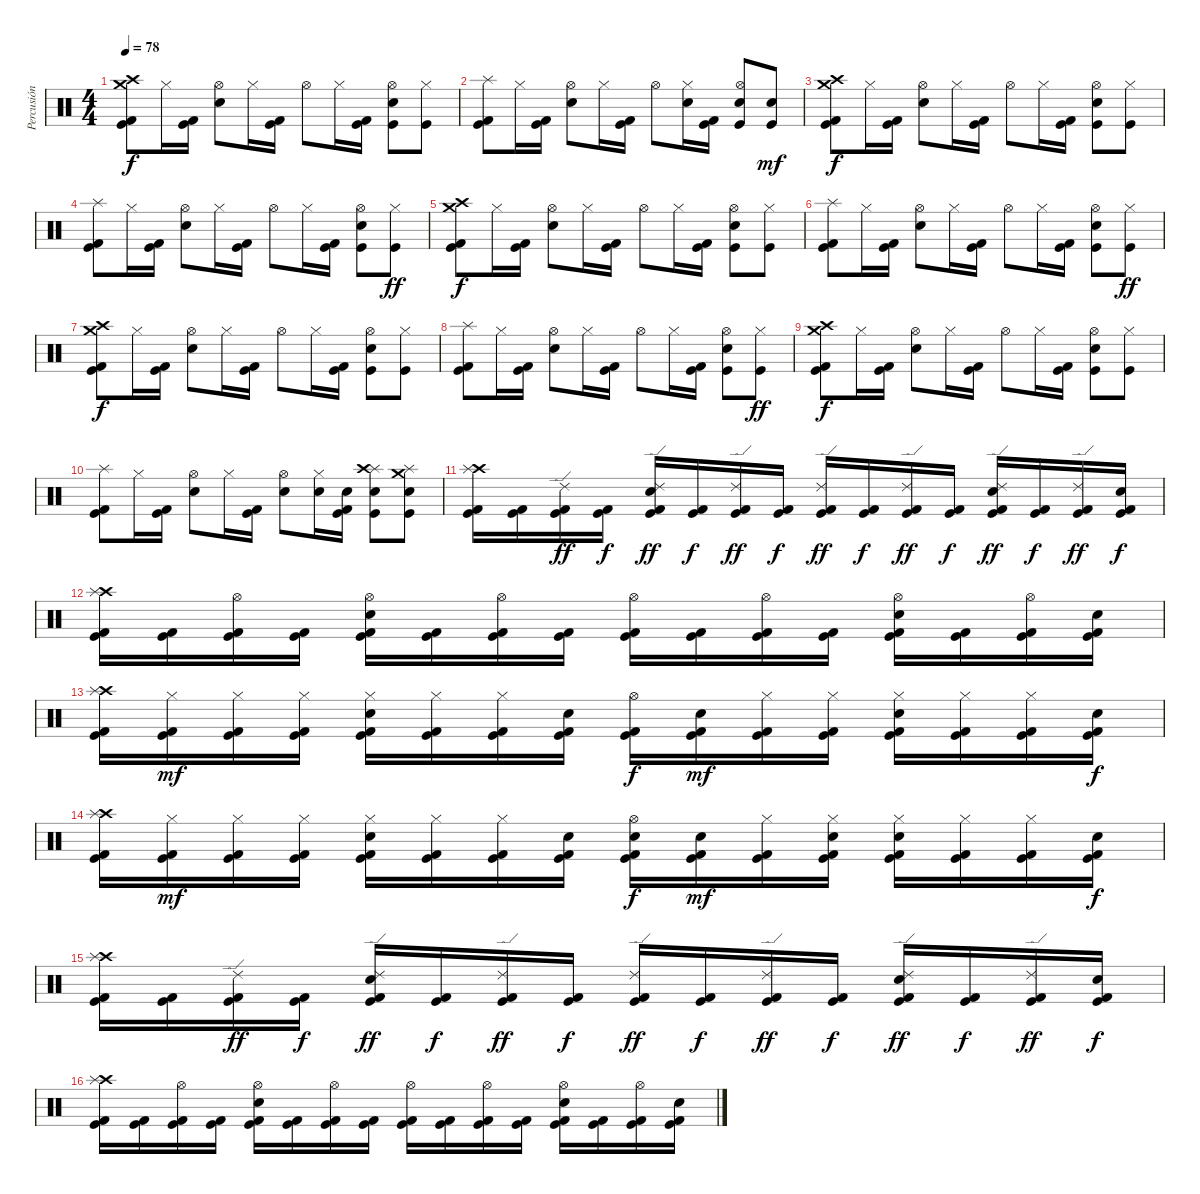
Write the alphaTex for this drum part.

\track ("Percusión" "Percusión") {instrument percussion}
\staff {score}
\articulation defaults
\ts (4 4)
\tempo 78
\clef neutral
\ks c
("Crash high (hit)" "Crash medium (hit)" "Kick (hit) 2" "Kick (hit)").8{dy f} "Hi-Hat (closed)".16 ("Kick (hit) 2" "Kick (hit)").16 ("Hi-Hat (open)" "Snare (hit) 2").8 "Hi-Hat (closed)".16 ("Kick (hit) 2" "Kick (hit)").16 "Hi-Hat (open)".8 "Hi-Hat (closed)".16 ("Kick (hit)" "Kick (hit) 2").16 ("Hi-Hat (open)" "Snare (hit) 2" "Kick (hit)").8 ("Hi-Hat (closed)" "Kick (hit)").8 |
("Splash (hit)" "Kick (hit) 2" "Kick (hit)").8 "Hi-Hat (closed)".16 ("Kick (hit) 2" "Kick (hit)").16 ("Hi-Hat (open)" "Snare (hit) 2").8 "Hi-Hat (closed)".16 ("Kick (hit) 2" "Kick (hit)").16 "Hi-Hat (open)".8 ("Hi-Hat (closed)" "Snare (hit) 2").16 ("Kick (hit)" "Kick (hit) 2").16 ("Hi-Hat (open)" "Snare (hit) 2" "Kick (hit)").8 ("Snare (hit) 2" "Kick (hit)").8{dy mf} |
("Crash high (hit)" "Crash medium (hit)" "Kick (hit) 2" "Kick (hit)").8{dy f} "Hi-Hat (closed)".16 ("Kick (hit) 2" "Kick (hit)").16 ("Hi-Hat (open)" "Snare (hit) 2").8 "Hi-Hat (closed)".16 ("Kick (hit) 2" "Kick (hit)").16 "Hi-Hat (open)".8 "Hi-Hat (closed)".16 ("Kick (hit)" "Kick (hit) 2").16 ("Hi-Hat (open)" "Snare (hit) 2" "Kick (hit)").8 ("Hi-Hat (closed)" "Kick (hit)").8 |
("Splash (hit)" "Kick (hit) 2" "Kick (hit)").8 "Hi-Hat (closed)".16 ("Kick (hit) 2" "Kick (hit)").16 ("Hi-Hat (open)" "Snare (hit) 2").8 "Hi-Hat (closed)".16 ("Kick (hit) 2" "Kick (hit)").16 "Hi-Hat (open)".8 "Hi-Hat (closed)".16 ("Kick (hit)" "Kick (hit) 2").16 ("Hi-Hat (open)" "Snare (hit) 2" "Kick (hit)").8 ("Hi-Hat (closed)" "Kick (hit)").8{dy ff} |
("Crash high (hit)" "Crash medium (hit)" "Kick (hit) 2" "Kick (hit)").8{dy f} "Hi-Hat (closed)".16 ("Kick (hit) 2" "Kick (hit)").16 ("Hi-Hat (open)" "Snare (hit) 2").8 "Hi-Hat (closed)".16 ("Kick (hit) 2" "Kick (hit)").16 "Hi-Hat (open)".8 "Hi-Hat (closed)".16 ("Kick (hit)" "Kick (hit) 2").16 ("Hi-Hat (open)" "Snare (hit) 2" "Kick (hit)").8 ("Hi-Hat (closed)" "Kick (hit)").8 |
("Splash (hit)" "Kick (hit) 2" "Kick (hit)").8 "Hi-Hat (closed)".16 ("Kick (hit) 2" "Kick (hit)").16 ("Hi-Hat (open)" "Snare (hit) 2").8 "Hi-Hat (closed)".16 ("Kick (hit) 2" "Kick (hit)").16 "Hi-Hat (open)".8 "Hi-Hat (closed)".16 ("Kick (hit)" "Kick (hit) 2").16 ("Hi-Hat (open)" "Snare (hit) 2" "Kick (hit)").8 ("Hi-Hat (closed)" "Kick (hit)").8{dy ff} |
("Crash high (hit)" "Crash medium (hit)" "Kick (hit) 2" "Kick (hit)").8{dy f} "Hi-Hat (closed)".16 ("Kick (hit) 2" "Kick (hit)").16 ("Hi-Hat (open)" "Snare (hit) 2").8 "Hi-Hat (closed)".16 ("Kick (hit) 2" "Kick (hit)").16 "Hi-Hat (open)".8 "Hi-Hat (closed)".16 ("Kick (hit)" "Kick (hit) 2").16 ("Hi-Hat (open)" "Snare (hit) 2" "Kick (hit)").8 ("Hi-Hat (closed)" "Kick (hit)").8 |
("Splash (hit)" "Kick (hit) 2" "Kick (hit)").8 "Hi-Hat (closed)".16 ("Kick (hit) 2" "Kick (hit)").16 ("Hi-Hat (open)" "Snare (hit) 2").8 "Hi-Hat (closed)".16 ("Kick (hit) 2" "Kick (hit)").16 "Hi-Hat (open)".8 "Hi-Hat (closed)".16 ("Kick (hit)" "Kick (hit) 2").16 ("Hi-Hat (open)" "Snare (hit) 2" "Kick (hit)").8 ("Hi-Hat (closed)" "Kick (hit)").8{dy ff} |
("Crash high (hit)" "Crash medium (hit)" "Kick (hit) 2" "Kick (hit)").8{dy f} "Hi-Hat (closed)".16 ("Kick (hit) 2" "Kick (hit)").16 ("Hi-Hat (open)" "Snare (hit) 2").8 "Hi-Hat (closed)".16 ("Kick (hit) 2" "Kick (hit)").16 "Hi-Hat (open)".8 "Hi-Hat (closed)".16 ("Kick (hit)" "Kick (hit) 2").16 ("Hi-Hat (open)" "Snare (hit) 2" "Kick (hit)").8 ("Hi-Hat (closed)" "Kick (hit)").8 |
("Splash (hit)" "Kick (hit) 2" "Kick (hit)").8 "Hi-Hat (closed)".16 ("Kick (hit) 2" "Kick (hit)").16 ("Hi-Hat (open)" "Snare (hit) 2").8 "Hi-Hat (closed)".16 ("Kick (hit) 2" "Kick (hit)").16 ("Hi-Hat (open)" "Snare (hit) 2").8 ("Hi-Hat (closed)" "Snare (hit) 2").16 ("Snare (hit) 2" "Kick (hit)" "Kick (hit) 2").16 ("Splash (hit)" "Crash high (hit)" "Snare (hit) 2" "Kick (hit)").8 ("Splash (hit)" "Crash medium (hit)" "Snare (hit) 2" "Kick (hit)").8 |
("Crash high (hit)" "Splash (hit)" "Kick (hit) 2" "Kick (hit)").16 ("Kick (hit) 2" "Kick (hit)").16 ("Ride (edge) 2" "Kick (hit) 2" "Kick (hit)").16{dy ff} ("Kick (hit) 2" "Kick (hit)").16{dy f} ("Ride (edge) 2" "Snare (hit) 2" "Kick (hit) 2" "Kick (hit)").16{dy ff} ("Kick (hit) 2" "Kick (hit)").16{dy f} ("Ride (edge) 2" "Kick (hit) 2" "Kick (hit)").16{dy ff} ("Kick (hit) 2" "Kick (hit)").16{dy f} ("Ride (edge) 2" "Kick (hit) 2" "Kick (hit)").16{dy ff} ("Kick (hit) 2" "Kick (hit)").16{dy f} ("Ride (edge) 2" "Kick (hit) 2" "Kick (hit)").16{dy ff} ("Kick (hit) 2" "Kick (hit)").16{dy f} ("Ride (edge) 2" "Snare (hit) 2" "Kick (hit) 2" "Kick (hit)").16{dy ff} ("Kick (hit) 2" "Kick (hit)").16{dy f} ("Ride (edge) 2" "Kick (hit) 2" "Kick (hit)").16{dy ff} ("Snare (hit) 2" "Kick (hit) 2" "Kick (hit)").16{dy f} |
("Crash high (hit)" "Splash (hit)" "Kick (hit) 2" "Kick (hit)").16 ("Kick (hit) 2" "Kick (hit)").16 ("Hi-Hat (open)" "Kick (hit) 2" "Kick (hit)").16 ("Kick (hit) 2" "Kick (hit)").16 ("Hi-Hat (open)" "Snare (hit) 2" "Kick (hit) 2" "Kick (hit)").16 ("Kick (hit) 2" "Kick (hit)").16 ("Hi-Hat (open)" "Kick (hit) 2" "Kick (hit)").16 ("Kick (hit) 2" "Kick (hit)").16 ("Hi-Hat (open)" "Kick (hit) 2" "Kick (hit)").16 ("Kick (hit) 2" "Kick (hit)").16 ("Hi-Hat (open)" "Kick (hit) 2" "Kick (hit)").16 ("Kick (hit) 2" "Kick (hit)").16 ("Hi-Hat (open)" "Snare (hit) 2" "Kick (hit) 2" "Kick (hit)").16 ("Kick (hit) 2" "Kick (hit)").16 ("Hi-Hat (open)" "Kick (hit) 2" "Kick (hit)").16 ("Snare (hit) 2" "Kick (hit) 2" "Kick (hit)").16 |
("Crash high (hit)" "Splash (hit)" "Kick (hit) 2" "Kick (hit)").16 ("Hi-Hat (closed)" "Kick (hit) 2" "Kick (hit)").16{dy mf} ("Hi-Hat (closed)" "Kick (hit) 2" "Kick (hit)").16 ("Hi-Hat (closed)" "Kick (hit) 2" "Kick (hit)").16 ("Hi-Hat (closed)" "Snare (hit) 2" "Kick (hit) 2" "Kick (hit)").16 ("Hi-Hat (closed)" "Kick (hit) 2" "Kick (hit)").16 ("Hi-Hat (closed)" "Kick (hit) 2" "Kick (hit)").16 ("Snare (hit)" "Kick (hit) 2" "Kick (hit)").16 ("Hi-Hat (open)" "Kick (hit) 2" "Kick (hit)").16{dy f} ("Snare (hit)" "Kick (hit) 2" "Kick (hit)").16{dy mf} ("Hi-Hat (closed)" "Kick (hit) 2" "Kick (hit)").16 ("Hi-Hat (closed)" "Kick (hit) 2" "Kick (hit)").16 ("Hi-Hat (closed)" "Snare (hit) 2" "Kick (hit) 2" "Kick (hit)").16 ("Hi-Hat (closed)" "Kick (hit) 2" "Kick (hit)").16 ("Hi-Hat (closed)" "Kick (hit) 2" "Kick (hit)").16 ("Snare (hit) 2" "Kick (hit) 2" "Kick (hit)").16{dy f} |
("Crash high (hit)" "Splash (hit)" "Kick (hit) 2" "Kick (hit)").16 ("Hi-Hat (closed)" "Kick (hit) 2" "Kick (hit)").16{dy mf} ("Hi-Hat (closed)" "Kick (hit) 2" "Kick (hit)").16 ("Hi-Hat (closed)" "Kick (hit) 2" "Kick (hit)").16 ("Hi-Hat (closed)" "Snare (hit) 2" "Kick (hit) 2" "Kick (hit)").16 ("Hi-Hat (closed)" "Kick (hit) 2" "Kick (hit)").16 ("Hi-Hat (closed)" "Kick (hit) 2" "Kick (hit)").16 ("Snare (hit)" "Kick (hit) 2" "Kick (hit)").16 ("Hi-Hat (open)" "Snare (hit) 2" "Kick (hit) 2" "Kick (hit)").16{dy f} ("Snare (hit)" "Kick (hit) 2" "Kick (hit)").16{dy mf} ("Hi-Hat (closed)" "Kick (hit) 2" "Kick (hit)").16 ("Hi-Hat (closed)" "Snare (hit) 2" "Kick (hit) 2" "Kick (hit)").16 ("Hi-Hat (closed)" "Snare (hit) 2" "Kick (hit) 2" "Kick (hit)").16 ("Hi-Hat (closed)" "Kick (hit) 2" "Kick (hit)").16 ("Hi-Hat (closed)" "Kick (hit) 2" "Kick (hit)").16 ("Snare (hit) 2" "Kick (hit) 2" "Kick (hit)").16{dy f} |
("Crash high (hit)" "Splash (hit)" "Kick (hit) 2" "Kick (hit)").16 ("Kick (hit) 2" "Kick (hit)").16 ("Ride (edge) 2" "Kick (hit) 2" "Kick (hit)").16{dy ff} ("Kick (hit) 2" "Kick (hit)").16{dy f} ("Ride (edge) 2" "Snare (hit) 2" "Kick (hit) 2" "Kick (hit)").16{dy ff} ("Kick (hit) 2" "Kick (hit)").16{dy f} ("Ride (edge) 2" "Kick (hit) 2" "Kick (hit)").16{dy ff} ("Kick (hit) 2" "Kick (hit)").16{dy f} ("Ride (edge) 2" "Kick (hit) 2" "Kick (hit)").16{dy ff} ("Kick (hit) 2" "Kick (hit)").16{dy f} ("Ride (edge) 2" "Kick (hit) 2" "Kick (hit)").16{dy ff} ("Kick (hit) 2" "Kick (hit)").16{dy f} ("Ride (edge) 2" "Snare (hit) 2" "Kick (hit) 2" "Kick (hit)").16{dy ff} ("Kick (hit) 2" "Kick (hit)").16{dy f} ("Ride (edge) 2" "Kick (hit) 2" "Kick (hit)").16{dy ff} ("Snare (hit) 2" "Kick (hit) 2" "Kick (hit)").16{dy f} |
("Crash high (hit)" "Splash (hit)" "Kick (hit) 2" "Kick (hit)").16 ("Kick (hit) 2" "Kick (hit)").16 ("Hi-Hat (open)" "Kick (hit) 2" "Kick (hit)").16 ("Kick (hit) 2" "Kick (hit)").16 ("Hi-Hat (open)" "Snare (hit) 2" "Kick (hit) 2" "Kick (hit)").16 ("Kick (hit) 2" "Kick (hit)").16 ("Hi-Hat (open)" "Kick (hit) 2" "Kick (hit)").16 ("Kick (hit) 2" "Kick (hit)").16 ("Hi-Hat (open)" "Kick (hit) 2" "Kick (hit)").16 ("Kick (hit) 2" "Kick (hit)").16 ("Hi-Hat (open)" "Kick (hit) 2" "Kick (hit)").16 ("Kick (hit) 2" "Kick (hit)").16 ("Hi-Hat (open)" "Snare (hit) 2" "Kick (hit) 2" "Kick (hit)").16 ("Kick (hit) 2" "Kick (hit)").16 ("Hi-Hat (open)" "Kick (hit) 2" "Kick (hit)").16 ("Snare (hit) 2" "Kick (hit) 2" "Kick (hit)").16
